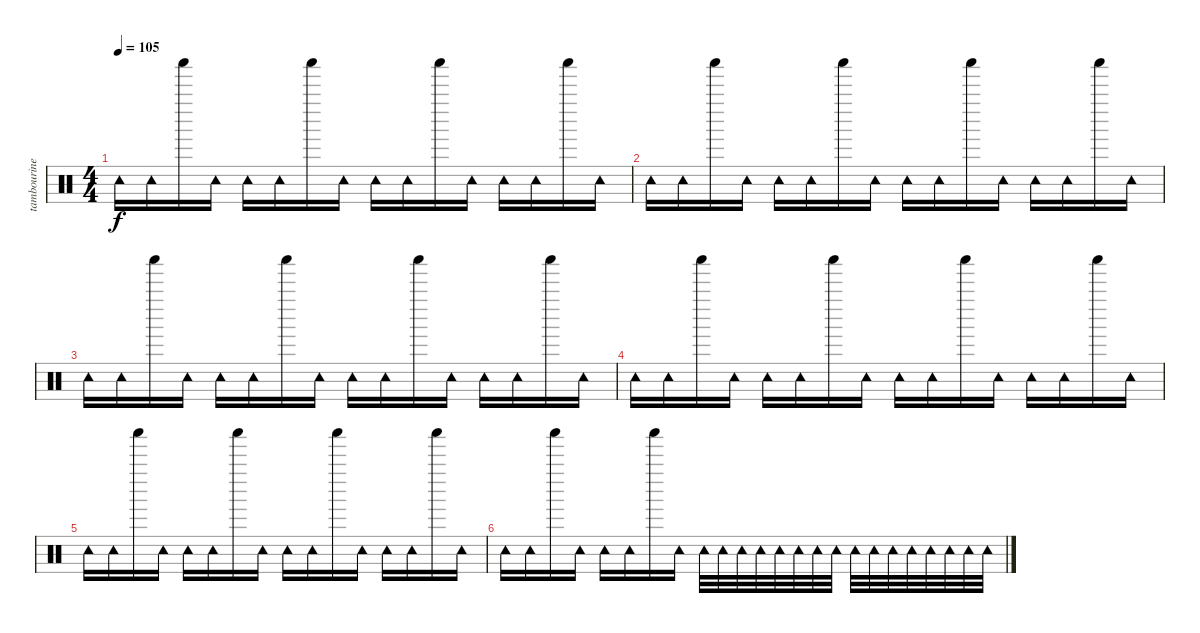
\track ("tambourine" "tambourine") {instrument percussion}
\staff {score}
\articulation defaults
\ts (4 4)
\tempo 105
\clef neutral
\ks c "Tambourine (hit)".16{dy f} "Tambourine (hit)".16 "Shaker (hit)".16 "Tambourine (hit)".16 "Tambourine (hit)".16 "Tambourine (hit)".16 "Shaker (hit)".16 "Tambourine (hit)".16 "Tambourine (hit)".16 "Tambourine (hit)".16 "Shaker (hit)".16 "Tambourine (hit)".16 "Tambourine (hit)".16 "Tambourine (hit)".16 "Shaker (hit)".16 "Tambourine (hit)".16
|
"Tambourine (hit)".16 "Tambourine (hit)".16 "Shaker (hit)".16 "Tambourine (hit)".16 "Tambourine (hit)".16 "Tambourine (hit)".16 "Shaker (hit)".16 "Tambourine (hit)".16 "Tambourine (hit)".16 "Tambourine (hit)".16 "Shaker (hit)".16 "Tambourine (hit)".16 "Tambourine (hit)".16 "Tambourine (hit)".16 "Shaker (hit)".16 "Tambourine (hit)".16 |
"Tambourine (hit)".16 "Tambourine (hit)".16 "Shaker (hit)".16 "Tambourine (hit)".16 "Tambourine (hit)".16 "Tambourine (hit)".16 "Shaker (hit)".16 "Tambourine (hit)".16 "Tambourine (hit)".16 "Tambourine (hit)".16 "Shaker (hit)".16 "Tambourine (hit)".16 "Tambourine (hit)".16 "Tambourine (hit)".16 "Shaker (hit)".16 "Tambourine (hit)".16 |
"Tambourine (hit)".16 "Tambourine (hit)".16 "Shaker (hit)".16 "Tambourine (hit)".16 "Tambourine (hit)".16 "Tambourine (hit)".16 "Shaker (hit)".16 "Tambourine (hit)".16 "Tambourine (hit)".16 "Tambourine (hit)".16 "Shaker (hit)".16 "Tambourine (hit)".16 "Tambourine (hit)".16 "Tambourine (hit)".16 "Shaker (hit)".16 "Tambourine (hit)".16 |
"Tambourine (hit)".16 "Tambourine (hit)".16 "Shaker (hit)".16 "Tambourine (hit)".16 "Tambourine (hit)".16 "Tambourine (hit)".16 "Shaker (hit)".16 "Tambourine (hit)".16 "Tambourine (hit)".16 "Tambourine (hit)".16 "Shaker (hit)".16 "Tambourine (hit)".16 "Tambourine (hit)".16 "Tambourine (hit)".16 "Shaker (hit)".16 "Tambourine (hit)".16 |
"Tambourine (hit)".16 "Tambourine (hit)".16 "Shaker (hit)".16 "Tambourine (hit)".16 "Tambourine (hit)".16 "Tambourine (hit)".16 "Shaker (hit)".16 "Tambourine (hit)".16 "Tambourine (hit)".32 "Tambourine (hit)".32 "Tambourine (hit)".32 "Tambourine (hit)".32 "Tambourine (hit)".32 "Tambourine (hit)".32 "Tambourine (hit)".32 "Tambourine (hit)".32 "Tambourine (hit)".32 "Tambourine (hit)".32 "Tambourine (hit)".32 "Tambourine (hit)".32 "Tambourine (hit)".32 "Tambourine (hit)".32 "Tambourine (hit)".32 "Tambourine (hit)".32
